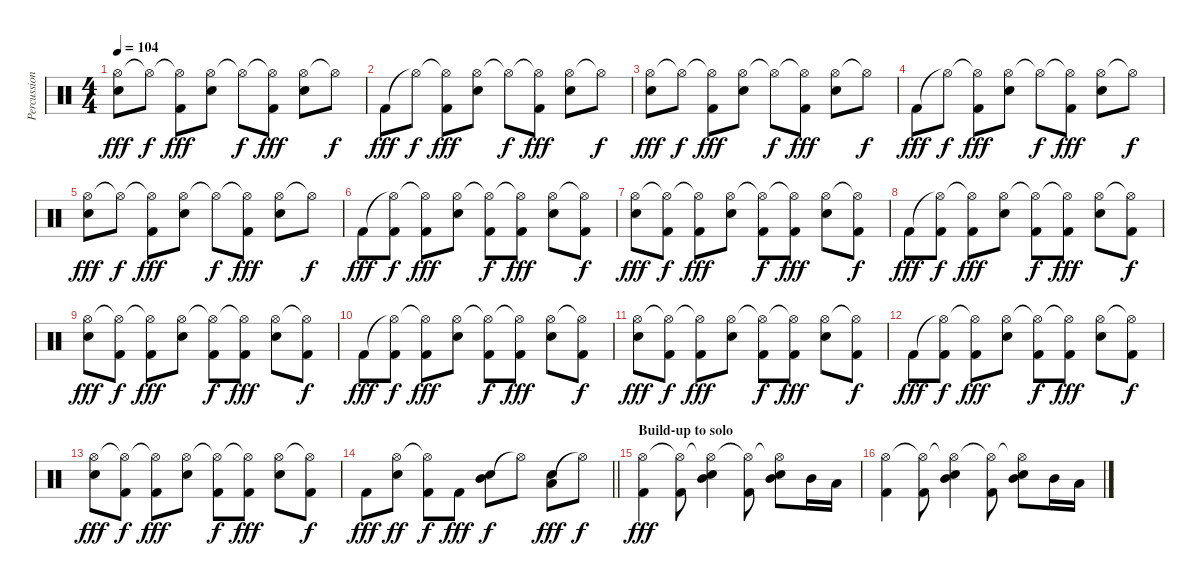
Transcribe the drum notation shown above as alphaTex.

\track ("Percussion" "Percussion") {instrument percussion}
\staff {score}
\articulation defaults
\ts (4 4)
\tempo 104
\clef neutral
\ks c
("Hi-Hat (open)" "Electric Snare (hit)").8{dy fff} "Hi-Hat (open)"{t}.8{dy f} ("Hi-Hat (open)"{t} "Kick (hit) 2").8{dy fff} ("Hi-Hat (open)" "Electric Snare (hit)").8 "Hi-Hat (open)"{t}.8{dy f} ("Hi-Hat (open)"{t} "Kick (hit) 2").8{dy fff} ("Hi-Hat (open)" "Electric Snare (hit)").8 "Hi-Hat (open)"{t}.8{dy f} |
"Kick (hit) 2".8{dy fff} "Hi-Hat (open)"{t}.8{dy f} ("Hi-Hat (open)"{t} "Kick (hit) 2").8{dy fff} ("Hi-Hat (open)" "Electric Snare (hit)").8 "Hi-Hat (open)"{t}.8{dy f} ("Hi-Hat (open)"{t} "Kick (hit) 2").8{dy fff} ("Hi-Hat (open)" "Electric Snare (hit)").8 "Hi-Hat (open)"{t}.8{dy f} |
("Hi-Hat (open)" "Electric Snare (hit)").8{dy fff} "Hi-Hat (open)"{t}.8{dy f} ("Hi-Hat (open)"{t} "Kick (hit) 2").8{dy fff} ("Hi-Hat (open)" "Electric Snare (hit)").8 "Hi-Hat (open)"{t}.8{dy f} ("Hi-Hat (open)"{t} "Kick (hit) 2").8{dy fff} ("Hi-Hat (open)" "Electric Snare (hit)").8 "Hi-Hat (open)"{t}.8{dy f} |
"Kick (hit) 2".8{dy fff} "Hi-Hat (open)"{t}.8{dy f} ("Hi-Hat (open)"{t} "Kick (hit) 2").8{dy fff} ("Hi-Hat (open)" "Electric Snare (hit)").8 "Hi-Hat (open)"{t}.8{dy f} ("Hi-Hat (open)"{t} "Kick (hit) 2").8{dy fff} ("Hi-Hat (open)" "Electric Snare (hit)").8 "Hi-Hat (open)"{t}.8{dy f} |
("Hi-Hat (open)" "Electric Snare (hit)").8{dy fff} "Hi-Hat (open)"{t}.8{dy f} ("Hi-Hat (open)"{t} "Kick (hit) 2").8{dy fff} ("Hi-Hat (open)" "Electric Snare (hit)").8 "Hi-Hat (open)"{t}.8{dy f} ("Hi-Hat (open)"{t} "Kick (hit) 2").8{dy fff} ("Hi-Hat (open)" "Electric Snare (hit)").8 "Hi-Hat (open)"{t}.8{dy f} |
"Kick (hit) 2".8{dy fff} ("Hi-Hat (open)"{t} "Kick (hit) 2").8{dy f} ("Hi-Hat (open)"{t} "Kick (hit) 2").8{dy fff} ("Hi-Hat (open)" "Electric Snare (hit)").8 ("Hi-Hat (open)"{t} "Kick (hit) 2").8{dy f} ("Hi-Hat (open)"{t} "Kick (hit) 2").8{dy fff} ("Hi-Hat (open)" "Electric Snare (hit)").8 ("Hi-Hat (open)"{t} "Kick (hit) 2").8{dy f} |
("Hi-Hat (open)" "Electric Snare (hit)").8{dy fff} ("Hi-Hat (open)"{t} "Kick (hit) 2").8{dy f} ("Hi-Hat (open)"{t} "Kick (hit) 2").8{dy fff} ("Hi-Hat (open)" "Electric Snare (hit)").8 ("Hi-Hat (open)"{t} "Kick (hit) 2").8{dy f} ("Hi-Hat (open)"{t} "Kick (hit) 2").8{dy fff} ("Hi-Hat (open)" "Electric Snare (hit)").8 ("Hi-Hat (open)"{t} "Kick (hit) 2").8{dy f} |
"Kick (hit) 2".8{dy fff} ("Hi-Hat (open)"{t} "Kick (hit) 2").8{dy f} ("Hi-Hat (open)"{t} "Kick (hit) 2").8{dy fff} ("Hi-Hat (open)" "Electric Snare (hit)").8 ("Hi-Hat (open)"{t} "Kick (hit) 2").8{dy f} ("Hi-Hat (open)"{t} "Kick (hit) 2").8{dy fff} ("Hi-Hat (open)" "Electric Snare (hit)").8 ("Hi-Hat (open)"{t} "Kick (hit) 2").8{dy f} |
("Hi-Hat (open)" "Electric Snare (hit)").8{dy fff} ("Hi-Hat (open)"{t} "Kick (hit) 2").8{dy f} ("Hi-Hat (open)"{t} "Kick (hit) 2").8{dy fff} ("Hi-Hat (open)" "Electric Snare (hit)").8 ("Hi-Hat (open)"{t} "Kick (hit) 2").8{dy f} ("Hi-Hat (open)"{t} "Kick (hit) 2").8{dy fff} ("Hi-Hat (open)" "Electric Snare (hit)").8 ("Hi-Hat (open)"{t} "Kick (hit) 2").8{dy f} |
"Kick (hit) 2".8{dy fff} ("Hi-Hat (open)"{t} "Kick (hit) 2").8{dy f} ("Hi-Hat (open)"{t} "Kick (hit) 2").8{dy fff} ("Hi-Hat (open)" "Electric Snare (hit)").8 ("Hi-Hat (open)"{t} "Kick (hit) 2").8{dy f} ("Hi-Hat (open)"{t} "Kick (hit) 2").8{dy fff} ("Hi-Hat (open)" "Electric Snare (hit)").8 ("Hi-Hat (open)"{t} "Kick (hit) 2").8{dy f} |
("Hi-Hat (open)" "Electric Snare (hit)").8{dy fff} ("Hi-Hat (open)"{t} "Kick (hit) 2").8{dy f} ("Hi-Hat (open)"{t} "Kick (hit) 2").8{dy fff} ("Hi-Hat (open)" "Electric Snare (hit)").8 ("Hi-Hat (open)"{t} "Kick (hit) 2").8{dy f} ("Hi-Hat (open)"{t} "Kick (hit) 2").8{dy fff} ("Hi-Hat (open)" "Electric Snare (hit)").8 ("Hi-Hat (open)"{t} "Kick (hit) 2").8{dy f} |
"Kick (hit) 2".8{dy fff} ("Hi-Hat (open)"{t} "Kick (hit) 2").8{dy f} ("Hi-Hat (open)"{t} "Kick (hit) 2").8{dy fff} ("Hi-Hat (open)" "Electric Snare (hit)").8 ("Hi-Hat (open)"{t} "Kick (hit) 2").8{dy f} ("Hi-Hat (open)"{t} "Kick (hit) 2").8{dy fff} ("Hi-Hat (open)" "Electric Snare (hit)").8 ("Hi-Hat (open)"{t} "Kick (hit) 2").8{dy f} |
("Hi-Hat (open)" "Electric Snare (hit)").8{dy fff} ("Hi-Hat (open)"{t} "Kick (hit) 2").8{dy f} ("Hi-Hat (open)"{t} "Kick (hit) 2").8{dy fff} ("Hi-Hat (open)" "Electric Snare (hit)").8 ("Hi-Hat (open)"{t} "Kick (hit) 2").8{dy f} ("Hi-Hat (open)"{t} "Kick (hit) 2").8{dy fff} ("Hi-Hat (open)" "Electric Snare (hit)").8 ("Hi-Hat (open)"{t} "Kick (hit) 2").8{dy f} |
\barLineRight lightlight "Kick (hit) 2".8{dy fff}
("Hi-Hat (open)" "Electric Snare (hit)").8{dy ff} ("Hi-Hat (open)"{t} "Kick (hit) 2").8{dy f} "Kick (hit) 2".8{dy fff} ("Mid Tom (hit)" "Electric Snare (hit)").8{dy f} "Hi-Hat (open)"{t}.8 ("Low Tom (hit)" "Electric Snare (hit)").8{dy fff} "Hi-Hat (open)"{t}.8{dy f} |
\section ("" "Build-up to solo")
("Hi-Hat (open)" "Kick (hit) 2").4{dy fff} ("Hi-Hat (open)"{t} "Kick (hit) 2").8 ("Hi-Hat (open)"{t} "Mid Tom (hit)" "Electric Snare (hit)").4 ("Hi-Hat (open)"{t} "Kick (hit) 2").8 ("Hi-Hat (open)"{t} "Mid Tom (hit)" "Electric Snare (hit)").8 "Mid Tom (hit)".16 "Low Tom (hit)".16 |
("Hi-Hat (open)" "Kick (hit) 2").4 ("Hi-Hat (open)"{t} "Kick (hit) 2").8 ("Hi-Hat (open)"{t} "Mid Tom (hit)" "Electric Snare (hit)").4 ("Hi-Hat (open)"{t} "Kick (hit) 2").8 ("Hi-Hat (open)"{t} "Mid Tom (hit)" "Electric Snare (hit)").8 "Mid Tom (hit)".16 "Low Tom (hit)".16
